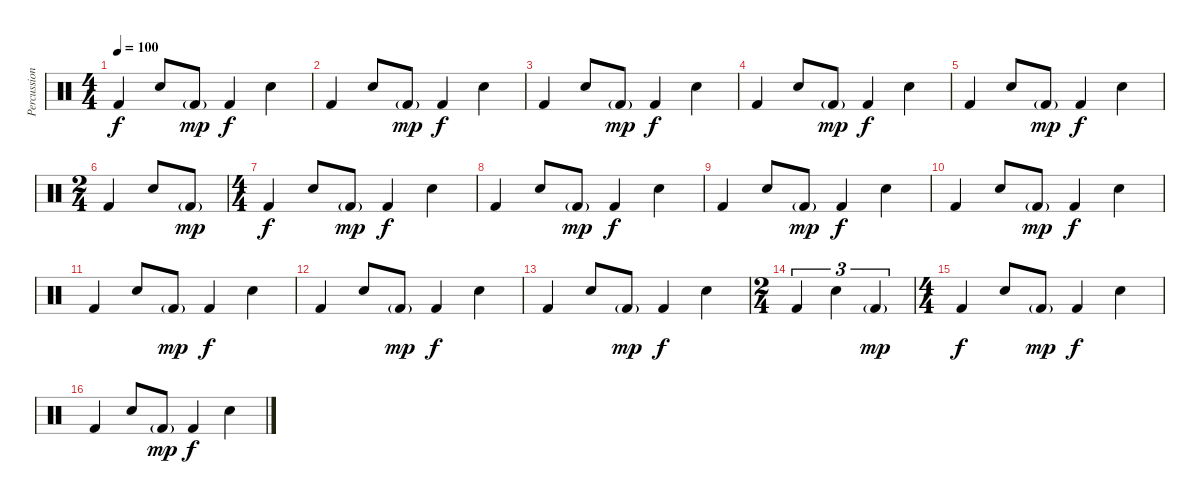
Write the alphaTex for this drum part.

\track ("Percussion" "Percussion") {instrument percussion}
\staff {score}
\articulation defaults
\ts (4 4)
\tempo 100
\clef neutral
\ks c "Kick (hit) 2".4{dy f} "Snare (hit) 2".8 "Kick (hit) 2"{g}.8{dy mp} "Kick (hit) 2".4{dy f} "Snare (hit) 2".4
|
"Kick (hit) 2".4 "Snare (hit) 2".8 "Kick (hit) 2"{g}.8{dy mp} "Kick (hit) 2".4{dy f} "Snare (hit) 2".4 |
"Kick (hit) 2".4 "Snare (hit) 2".8 "Kick (hit) 2"{g}.8{dy mp} "Kick (hit) 2".4{dy f} "Snare (hit) 2".4 |
"Kick (hit) 2".4 "Snare (hit) 2".8 "Kick (hit) 2"{g}.8{dy mp} "Kick (hit) 2".4{dy f} "Snare (hit) 2".4 |
"Kick (hit) 2".4 "Snare (hit) 2".8 "Kick (hit) 2"{g}.8{dy mp} "Kick (hit) 2".4{dy f} "Snare (hit) 2".4 |
\ts (2 4)
"Kick (hit) 2".4 "Snare (hit) 2".8 "Kick (hit) 2"{g}.8{dy mp} |
\ts (4 4)
"Kick (hit) 2".4{dy f} "Snare (hit) 2".8 "Kick (hit) 2"{g}.8{dy mp} "Kick (hit) 2".4{dy f} "Snare (hit) 2".4 |
"Kick (hit) 2".4 "Snare (hit) 2".8 "Kick (hit) 2"{g}.8{dy mp} "Kick (hit) 2".4{dy f} "Snare (hit) 2".4 |
"Kick (hit) 2".4 "Snare (hit) 2".8 "Kick (hit) 2"{g}.8{dy mp} "Kick (hit) 2".4{dy f} "Snare (hit) 2".4 |
"Kick (hit) 2".4 "Snare (hit) 2".8 "Kick (hit) 2"{g}.8{dy mp} "Kick (hit) 2".4{dy f} "Snare (hit) 2".4 |
"Kick (hit) 2".4 "Snare (hit) 2".8 "Kick (hit) 2"{g}.8{dy mp} "Kick (hit) 2".4{dy f} "Snare (hit) 2".4 |
"Kick (hit) 2".4 "Snare (hit) 2".8 "Kick (hit) 2"{g}.8{dy mp} "Kick (hit) 2".4{dy f} "Snare (hit) 2".4 |
"Kick (hit) 2".4 "Snare (hit) 2".8 "Kick (hit) 2"{g}.8{dy mp} "Kick (hit) 2".4{dy f} "Snare (hit) 2".4 |
\ts (2 4)
"Kick (hit) 2".4{tu (3 2)} "Snare (hit) 2".4{tu (3 2)} "Kick (hit) 2"{g}.4{tu (3 2) dy mp} |
\ts (4 4)
"Kick (hit) 2".4{dy f} "Snare (hit) 2".8 "Kick (hit) 2"{g}.8{dy mp} "Kick (hit) 2".4{dy f} "Snare (hit) 2".4 |
"Kick (hit) 2".4 "Snare (hit) 2".8 "Kick (hit) 2"{g}.8{dy mp} "Kick (hit) 2".4{dy f} "Snare (hit) 2".4
